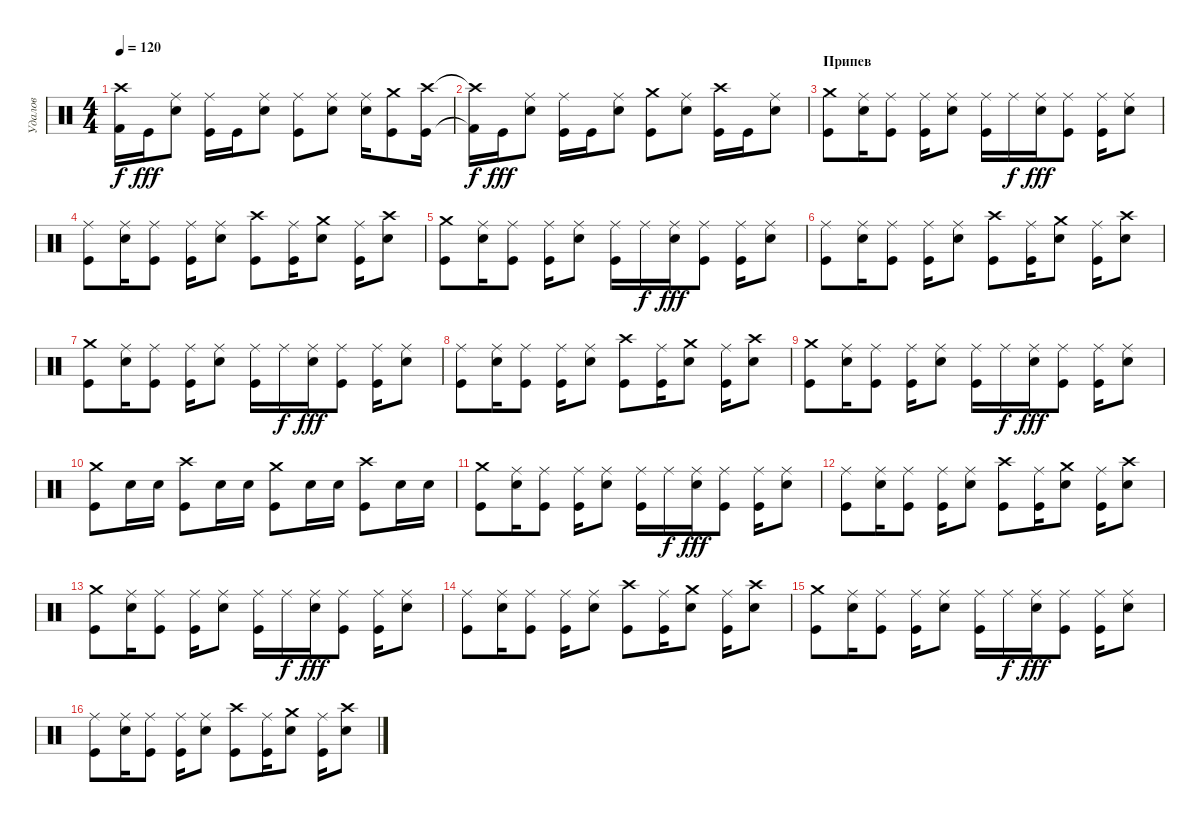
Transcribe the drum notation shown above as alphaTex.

\track ("Удалов " "Удалов ") {instrument percussion}
\staff {score}
\articulation defaults
\ts (4 4)
\tempo 120
\clef neutral
\ks c
("Crash high (hit)"{t} "Kick (hit) 2"{t}).16{dy f} "Kick (hit)".16{dy fff} ("Snare (hit) 2" "Ride (middle)").8 ("Kick (hit)" "Ride (middle)").16 "Kick (hit)".16 ("Snare (hit) 2" "Ride (middle)").8 ("Kick (hit)" "Ride (middle)").8 ("Ride (middle)" "Snare (hit) 2").8 ("Snare (hit) 2" "Ride (middle)").16 ("Kick (hit)" "Crash medium (hit)").8 ("Crash high (hit)" "Kick (hit)").16 |
("Crash high (hit)"{t} "Kick (hit) 2"{t}).16{dy f} "Kick (hit)".16{dy fff} ("Snare (hit) 2" "Ride (middle)").8 ("Kick (hit)" "Ride (middle)").16 "Kick (hit)".16 ("Snare (hit) 2" "Ride (middle)").8 ("Kick (hit)" "Crash medium (hit)").8 ("Ride (middle)" "Snare (hit) 2").8 ("Kick (hit)" "Crash high (hit)").16 "Kick (hit)".16 ("Snare (hit) 2" "Ride (middle)").8 |
\section ("" "Припев")
("Kick (hit)" "Crash medium (hit)").8 ("Snare (hit) 2" "Ride (middle)").16 ("Kick (hit)" "Ride (middle)").8 ("Kick (hit)" "Ride (middle)").16 ("Snare (hit) 2" "Ride (middle)").8 ("Kick (hit)" "Ride (middle)").16 "Ride (middle)".16{dy f} ("Snare (hit) 2" "Ride (middle)").16{dy fff} ("Kick (hit)" "Ride (middle)").8 ("Kick (hit)" "Ride (middle)").16 ("Snare (hit) 2" "Ride (middle)").8 |
("Kick (hit)" "Ride (middle)").8 ("Snare (hit) 2" "Ride (middle)").16 ("Kick (hit)" "Ride (middle)").8 ("Ride (middle)" "Kick (hit)").16 ("Ride (middle)" "Snare (hit) 2").8 ("Crash high (hit)" "Kick (hit)").8 ("Ride (middle)" "Kick (hit)").16 ("Crash medium (hit)" "Snare (hit) 2").8 ("Ride (middle)" "Kick (hit)").16 ("Crash high (hit)" "Snare (hit) 2").8 |
("Kick (hit)" "Crash medium (hit)").8 ("Snare (hit) 2" "Ride (middle)").16 ("Kick (hit)" "Ride (middle)").8 ("Kick (hit)" "Ride (middle)").16 ("Snare (hit) 2" "Ride (middle)").8 ("Kick (hit)" "Ride (middle)").16 "Ride (middle)".16{dy f} ("Snare (hit) 2" "Ride (middle)").16{dy fff} ("Kick (hit)" "Ride (middle)").8 ("Kick (hit)" "Ride (middle)").16 ("Snare (hit) 2" "Ride (middle)").8 |
("Kick (hit)" "Ride (middle)").8 ("Snare (hit) 2" "Ride (middle)").16 ("Kick (hit)" "Ride (middle)").8 ("Ride (middle)" "Kick (hit)").16 ("Ride (middle)" "Snare (hit) 2").8 ("Crash high (hit)" "Kick (hit)").8 ("Ride (middle)" "Kick (hit)").16 ("Crash medium (hit)" "Snare (hit) 2").8 ("Ride (middle)" "Kick (hit)").16 ("Crash high (hit)" "Snare (hit) 2").8 |
("Kick (hit)" "Crash medium (hit)").8 ("Snare (hit) 2" "Ride (middle)").16 ("Kick (hit)" "Ride (middle)").8 ("Kick (hit)" "Ride (middle)").16 ("Snare (hit) 2" "Ride (middle)").8 ("Kick (hit)" "Ride (middle)").16 "Ride (middle)".16{dy f} ("Snare (hit) 2" "Ride (middle)").16{dy fff} ("Kick (hit)" "Ride (middle)").8 ("Kick (hit)" "Ride (middle)").16 ("Snare (hit) 2" "Ride (middle)").8 |
("Kick (hit)" "Ride (middle)").8 ("Snare (hit) 2" "Ride (middle)").16 ("Kick (hit)" "Ride (middle)").8 ("Ride (middle)" "Kick (hit)").16 ("Ride (middle)" "Snare (hit) 2").8 ("Crash high (hit)" "Kick (hit)").8 ("Ride (middle)" "Kick (hit)").16 ("Crash medium (hit)" "Snare (hit) 2").8 ("Ride (middle)" "Kick (hit)").16 ("Crash high (hit)" "Snare (hit) 2").8 |
("Kick (hit)" "Crash medium (hit)").8 ("Snare (hit) 2" "Ride (middle)").16 ("Kick (hit)" "Ride (middle)").8 ("Kick (hit)" "Ride (middle)").16 ("Snare (hit) 2" "Ride (middle)").8 ("Kick (hit)" "Ride (middle)").16 "Ride (middle)".16{dy f} ("Snare (hit) 2" "Ride (middle)").16{dy fff} ("Kick (hit)" "Ride (middle)").8 ("Kick (hit)" "Ride (middle)").16 ("Snare (hit) 2" "Ride (middle)").8 |
("Kick (hit)" "Crash medium (hit)").8 "Electric Snare (hit)".16 "Electric Snare (hit)".16 ("Kick (hit)" "Crash high (hit)").8 "Electric Snare (hit)".16 "Electric Snare (hit)".16 ("Kick (hit)" "Crash medium (hit)").8 "Electric Snare (hit)".16 "Electric Snare (hit)".16 ("Kick (hit)" "Crash high (hit)").8 "Electric Snare (hit)".16 "Electric Snare (hit)".16 |
("Kick (hit)" "Crash medium (hit)").8 ("Snare (hit) 2" "Ride (middle)").16 ("Kick (hit)" "Ride (middle)").8 ("Kick (hit)" "Ride (middle)").16 ("Snare (hit) 2" "Ride (middle)").8 ("Kick (hit)" "Ride (middle)").16 "Ride (middle)".16{dy f} ("Snare (hit) 2" "Ride (middle)").16{dy fff} ("Kick (hit)" "Ride (middle)").8 ("Kick (hit)" "Ride (middle)").16 ("Snare (hit) 2" "Ride (middle)").8 |
("Kick (hit)" "Ride (middle)").8 ("Snare (hit) 2" "Ride (middle)").16 ("Kick (hit)" "Ride (middle)").8 ("Ride (middle)" "Kick (hit)").16 ("Ride (middle)" "Snare (hit) 2").8 ("Crash high (hit)" "Kick (hit)").8 ("Ride (middle)" "Kick (hit)").16 ("Crash medium (hit)" "Snare (hit) 2").8 ("Ride (middle)" "Kick (hit)").16 ("Crash high (hit)" "Snare (hit) 2").8 |
("Crash medium (hit)" "Kick (hit)").8 ("Snare (hit) 2" "Ride (middle)").16 ("Kick (hit)" "Ride (middle)").8 ("Kick (hit)" "Ride (middle)").16 ("Snare (hit) 2" "Ride (middle)").8 ("Kick (hit)" "Ride (middle)").16 "Ride (middle)".16{dy f} ("Snare (hit) 2" "Ride (middle)").16{dy fff} ("Kick (hit)" "Ride (middle)").8 ("Kick (hit)" "Ride (middle)").16 ("Snare (hit) 2" "Ride (middle)").8 |
("Kick (hit)" "Ride (middle)").8 ("Snare (hit) 2" "Ride (middle)").16 ("Kick (hit)" "Ride (middle)").8 ("Ride (middle)" "Kick (hit)").16 ("Ride (middle)" "Snare (hit) 2").8 ("Crash high (hit)" "Kick (hit)").8 ("Ride (middle)" "Kick (hit)").16 ("Crash medium (hit)" "Snare (hit) 2").8 ("Ride (middle)" "Kick (hit)").16 ("Crash high (hit)" "Snare (hit) 2").8 |
("Kick (hit)" "Crash medium (hit)").8 ("Snare (hit) 2" "Ride (middle)").16 ("Kick (hit)" "Ride (middle)").8 ("Kick (hit)" "Ride (middle)").16 ("Snare (hit) 2" "Ride (middle)").8 ("Kick (hit)" "Ride (middle)").16 "Ride (middle)".16{dy f} ("Snare (hit) 2" "Ride (middle)").16{dy fff} ("Kick (hit)" "Ride (middle)").8 ("Kick (hit)" "Ride (middle)").16 ("Snare (hit) 2" "Ride (middle)").8 |
("Kick (hit)" "Ride (middle)").8 ("Snare (hit) 2" "Ride (middle)").16 ("Kick (hit)" "Ride (middle)").8 ("Ride (middle)" "Kick (hit)").16 ("Ride (middle)" "Snare (hit) 2").8 ("Crash high (hit)" "Kick (hit)").8 ("Ride (middle)" "Kick (hit)").16 ("Crash medium (hit)" "Snare (hit) 2").8 ("Ride (middle)" "Kick (hit)").16 ("Crash high (hit)" "Snare (hit) 2").8
